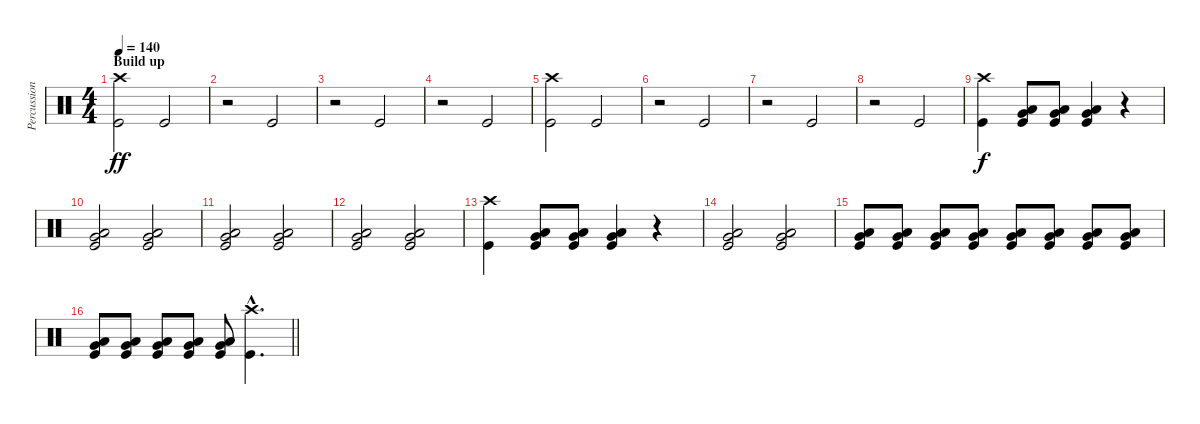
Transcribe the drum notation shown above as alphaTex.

\track ("Percussion" "Percussion") {instrument percussion}
\staff {score}
\articulation defaults
\ts (4 4)
\section ("" "Build up")
\tempo 140
\clef neutral
\ks c
("Crash high (hit)" "Kick (hit)").2{dy ff} "Kick (hit)".2 |
r.2 "Kick (hit)".2 |
r.2 "Kick (hit)".2 |
r.2 "Kick (hit)".2 |
("Crash high (hit)" "Kick (hit)").2 "Kick (hit)".2 |
r.2 "Kick (hit)".2 |
r.2 "Kick (hit)".2 |
r.2 "Kick (hit)".2 |
("Crash high (hit)" "Kick (hit)").4{dy f} ("Very Low Tom (hit)" "Low Floor Tom (hit)" "Kick (hit)").8 ("Very Low Tom (hit)" "Low Floor Tom (hit)" "Kick (hit)").8 ("Very Low Tom (hit)" "Low Floor Tom (hit)" "Kick (hit)").4 r.4 |
("Very Low Tom (hit)" "Low Floor Tom (hit)" "Kick (hit)").2 ("Very Low Tom (hit)" "Low Floor Tom (hit)" "Kick (hit)").2 |
("Very Low Tom (hit)" "Low Floor Tom (hit)" "Kick (hit)").2 ("Very Low Tom (hit)" "Low Floor Tom (hit)" "Kick (hit)").2 |
("Very Low Tom (hit)" "Low Floor Tom (hit)" "Kick (hit)").2 ("Very Low Tom (hit)" "Low Floor Tom (hit)" "Kick (hit)").2 |
("Crash high (hit)" "Kick (hit)").4 ("Very Low Tom (hit)" "Low Floor Tom (hit)" "Kick (hit)").8 ("Very Low Tom (hit)" "Low Floor Tom (hit)" "Kick (hit)").8 ("Very Low Tom (hit)" "Low Floor Tom (hit)" "Kick (hit)").4 r.4 |
("Very Low Tom (hit)" "Low Floor Tom (hit)" "Kick (hit)").2 ("Very Low Tom (hit)" "Low Floor Tom (hit)" "Kick (hit)").2 |
("Very Low Tom (hit)" "Low Floor Tom (hit)" "Kick (hit)").8 ("Very Low Tom (hit)" "Low Floor Tom (hit)" "Kick (hit)").8 ("Very Low Tom (hit)" "Low Floor Tom (hit)" "Kick (hit)").8 ("Very Low Tom (hit)" "Low Floor Tom (hit)" "Kick (hit)").8 ("Very Low Tom (hit)" "Low Floor Tom (hit)" "Kick (hit)").8 ("Very Low Tom (hit)" "Low Floor Tom (hit)" "Kick (hit)").8 ("Very Low Tom (hit)" "Low Floor Tom (hit)" "Kick (hit)").8 ("Very Low Tom (hit)" "Low Floor Tom (hit)" "Kick (hit)").8 |
\barLineRight lightlight
("Very Low Tom (hit)" "Low Floor Tom (hit)" "Kick (hit)").8 ("Very Low Tom (hit)" "Low Floor Tom (hit)" "Kick (hit)").8 ("Very Low Tom (hit)" "Low Floor Tom (hit)" "Kick (hit)").8 ("Very Low Tom (hit)" "Low Floor Tom (hit)" "Kick (hit)").8 ("Very Low Tom (hit)" "Low Floor Tom (hit)" "Kick (hit)").8 ("Crash high (hit)"{hac} "Kick (hit)"{hac}).4{d}
